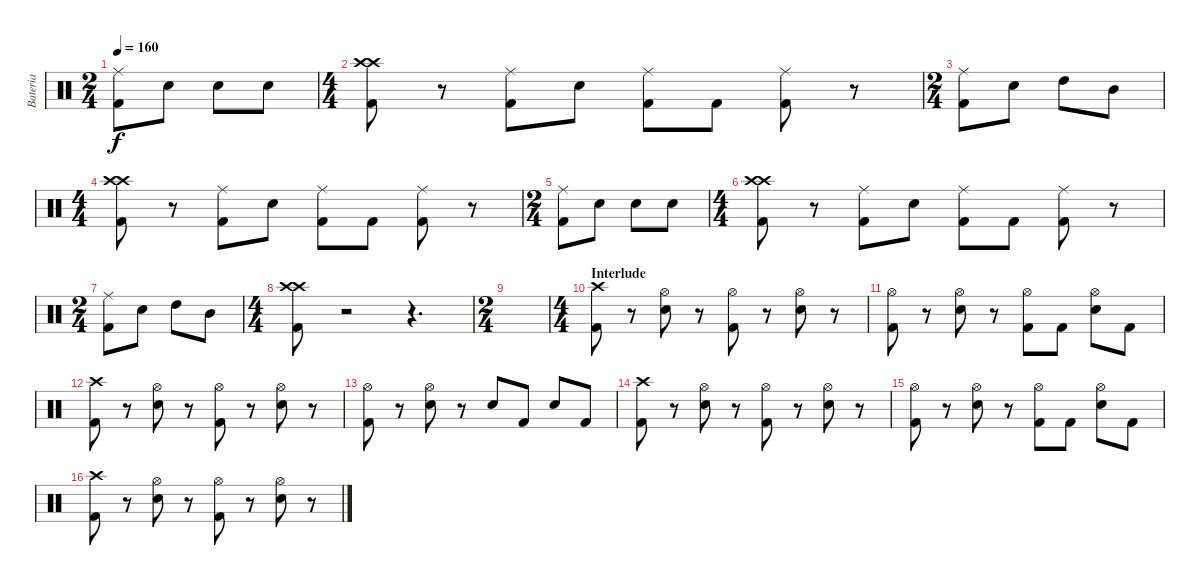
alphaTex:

\track ("Bateria" "Bateria") {instrument percussion}
\staff {score}
\articulation defaults
\ts (2 4)
\tempo 160
\clef neutral
\ks c
("Ride (middle)" "Kick (hit) 2").8{dy f} "Snare (hit) 2".8 "Snare (hit) 2".8 "Snare (hit) 2".8 |
\ts (4 4)
("Crash high (hit)" "Crash high (hit)" "Kick (hit) 2").8 r.8 ("Ride (middle)" "Kick (hit) 2").8 "Snare (hit) 2".8 ("Ride (middle)" "Kick (hit) 2").8 "Kick (hit) 2".8 ("Ride (middle)" "Kick (hit) 2").8 r.8 |
\ts (2 4)
("Ride (middle)" "Kick (hit) 2").8 "Snare (hit) 2".8 "High Tom (hit)".8 "Mid Tom (hit)".8 |
\ts (4 4)
("Crash high (hit)" "Crash high (hit)" "Kick (hit) 2").8 r.8 ("Ride (middle)" "Kick (hit) 2").8 "Snare (hit) 2".8 ("Ride (middle)" "Kick (hit) 2").8 "Kick (hit) 2".8 ("Ride (middle)" "Kick (hit) 2").8 r.8 |
\ts (2 4)
("Ride (middle)" "Kick (hit) 2").8 "Snare (hit) 2".8 "Snare (hit) 2".8 "Snare (hit) 2".8 |
\ts (4 4)
("Crash high (hit)" "Crash high (hit)" "Kick (hit) 2").8 r.8 ("Ride (middle)" "Kick (hit) 2").8 "Snare (hit) 2".8 ("Ride (middle)" "Kick (hit) 2").8 "Kick (hit) 2".8 ("Ride (middle)" "Kick (hit) 2").8 r.8 |
\ts (2 4)
("Ride (middle)" "Kick (hit) 2").8 "Snare (hit) 2".8 "High Tom (hit)".8 "Mid Tom (hit)".8 |
\ts (4 4)
("Crash high (hit)" "Crash high (hit)" "Kick (hit) 2").8 r.2 r.4{d} |
\ts (2 4)
|
\ts (4 4)
\section ("" "Interlude")
("Crash high (hit)" "Kick (hit) 2").8 r.8 ("Hi-Hat (open)" "Snare (hit) 2").8 r.8 ("Hi-Hat (open)" "Kick (hit) 2").8 r.8 ("Hi-Hat (open)" "Snare (hit) 2").8 r.8 |
("Hi-Hat (open)" "Kick (hit) 2").8 r.8 ("Hi-Hat (open)" "Snare (hit) 2").8 r.8 ("Hi-Hat (open)" "Kick (hit) 2").8 "Kick (hit) 2".8 ("Hi-Hat (open)" "Snare (hit) 2").8 "Kick (hit) 2".8 |
("Crash high (hit)" "Kick (hit) 2").8 r.8 ("Hi-Hat (open)" "Snare (hit) 2").8 r.8 ("Hi-Hat (open)" "Kick (hit) 2").8 r.8 ("Hi-Hat (open)" "Snare (hit) 2").8 r.8 |
("Hi-Hat (open)" "Kick (hit) 2").8 r.8 ("Hi-Hat (open)" "Snare (hit) 2").8 r.8 "Snare (hit) 2".8 "Kick (hit) 2".8 "Snare (hit) 2".8 "Kick (hit) 2".8 |
("Crash high (hit)" "Kick (hit) 2").8 r.8 ("Hi-Hat (open)" "Snare (hit) 2").8 r.8 ("Hi-Hat (open)" "Kick (hit) 2").8 r.8 ("Hi-Hat (open)" "Snare (hit) 2").8 r.8 |
("Hi-Hat (open)" "Kick (hit) 2").8 r.8 ("Hi-Hat (open)" "Snare (hit) 2").8 r.8 ("Hi-Hat (open)" "Kick (hit) 2").8 "Kick (hit) 2".8 ("Hi-Hat (open)" "Snare (hit) 2").8 "Kick (hit) 2".8 |
("Crash high (hit)" "Kick (hit) 2").8 r.8 ("Hi-Hat (open)" "Snare (hit) 2").8 r.8 ("Hi-Hat (open)" "Kick (hit) 2").8 r.8 ("Hi-Hat (open)" "Snare (hit) 2").8 r.8
